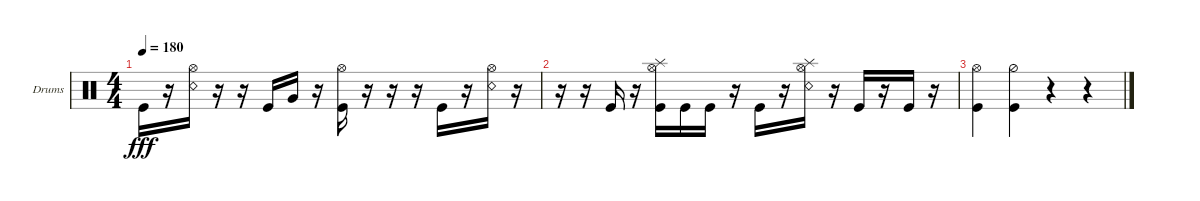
\defaultSystemsLayout 4
\bracketExtendMode groupsimilarinstruments
\firstSystemTrackNameOrientation horizontal
\otherSystemsTrackNameOrientation horizontal
\track ("Drumkit" "Drums") {instrument percussion}
\staff {score}
\articulation defaults
\ts (4 4)
\tempo 180
\clef neutral
\ks c "Kick (hit)".16{dy fff}
r.16 ("Hi-Hat (open)" "Snare (rim shot)").16 r.16 r.16 "Kick (hit)".16 "Very Low Tom (hit)".16 r.16 ("Hi-Hat (open)" "Kick (hit)").16 r.16 r.16 r.16 "Kick (hit)".16 r.16 ("Hi-Hat (open)" "Snare (rim shot)").16 r.16 |
r.16 r.16 "Kick (hit)".16 r.16 ("Hi-Hat (open)" "Kick (hit)" "Splash (hit)").16 "Kick (hit)".16 "Kick (hit)".16 r.16 "Kick (hit)".16 r.16 ("Hi-Hat (open)" "Snare (rim shot)" "Splash (hit)").16 r.16 "Kick (hit)".16 r.16 "Kick (hit)".16 r.16 |
("Kick (hit)" "Hi-Hat (open)").4 ("Kick (hit)" "Hi-Hat (half)").4 r.4 r.4
